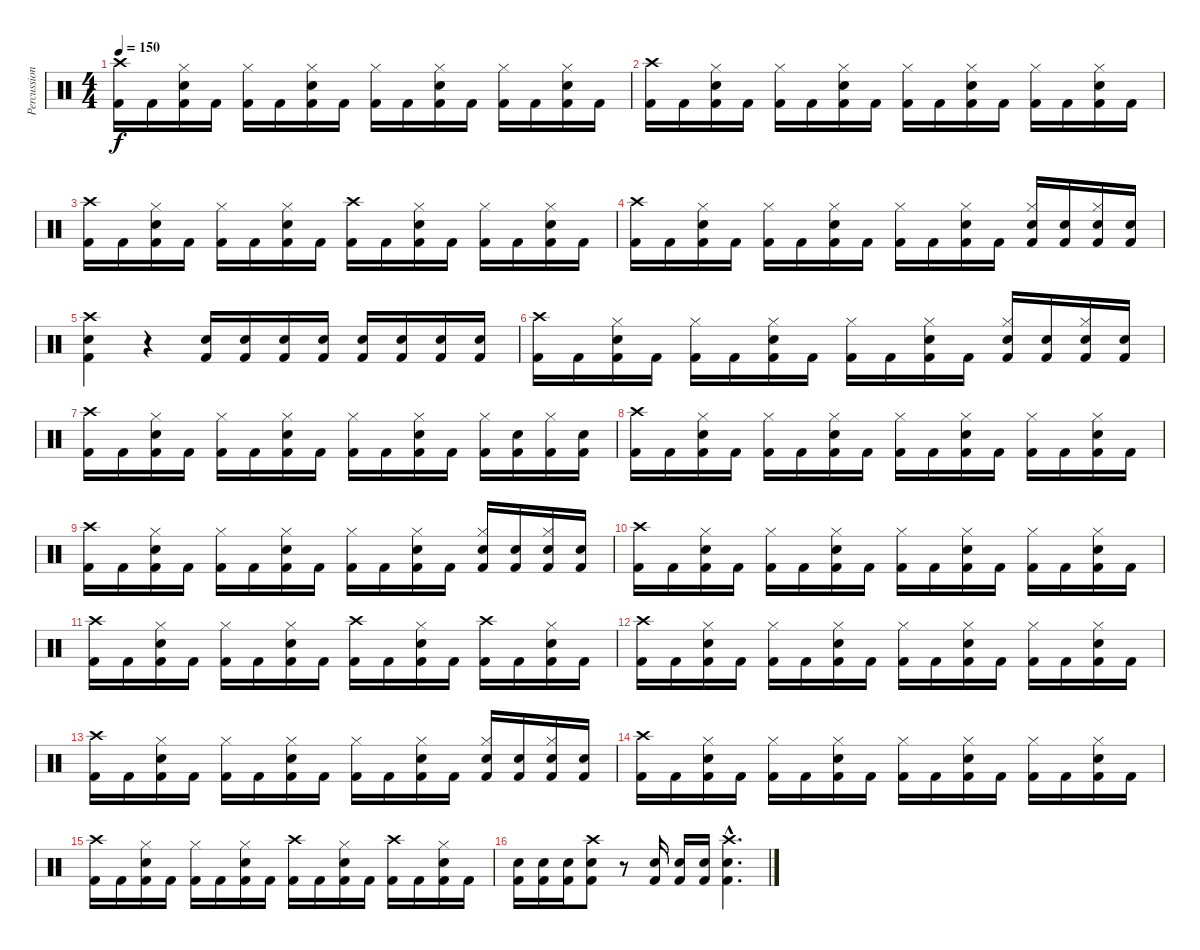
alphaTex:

\track ("Percussion" "Percussion") {instrument percussion}
\staff {score}
\articulation defaults
\ts (4 4)
\tempo 150
\clef neutral
\ks c
("Crash high (hit)" "Kick (hit) 2").16{dy f} "Kick (hit) 2".16 ("Hi-Hat (closed)" "Snare (hit) 2" "Kick (hit) 2").16 "Kick (hit) 2".16 ("Hi-Hat (closed)" "Kick (hit) 2").16 "Kick (hit) 2".16 ("Hi-Hat (closed)" "Snare (hit) 2" "Kick (hit) 2").16 "Kick (hit) 2".16 ("Hi-Hat (closed)" "Kick (hit) 2").16 "Kick (hit) 2".16 ("Hi-Hat (closed)" "Snare (hit) 2" "Kick (hit) 2").16 "Kick (hit) 2".16 ("Hi-Hat (closed)" "Kick (hit) 2").16 "Kick (hit) 2".16 ("Hi-Hat (closed)" "Snare (hit) 2" "Kick (hit) 2").16 "Kick (hit) 2".16 |
("Crash high (hit)" "Kick (hit) 2").16 "Kick (hit) 2".16 ("Hi-Hat (closed)" "Snare (hit) 2" "Kick (hit) 2").16 "Kick (hit) 2".16 ("Hi-Hat (closed)" "Kick (hit) 2").16 "Kick (hit) 2".16 ("Hi-Hat (closed)" "Snare (hit) 2" "Kick (hit) 2").16 "Kick (hit) 2".16 ("Hi-Hat (closed)" "Kick (hit) 2").16 "Kick (hit) 2".16 ("Hi-Hat (closed)" "Snare (hit) 2" "Kick (hit) 2").16 "Kick (hit) 2".16 ("Hi-Hat (closed)" "Kick (hit) 2").16 "Kick (hit) 2".16 ("Hi-Hat (closed)" "Snare (hit) 2" "Kick (hit) 2").16 "Kick (hit) 2".16 |
("Crash high (hit)" "Kick (hit) 2").16 "Kick (hit) 2".16 ("Hi-Hat (closed)" "Snare (hit) 2" "Kick (hit) 2").16 "Kick (hit) 2".16 ("Hi-Hat (closed)" "Kick (hit) 2").16 "Kick (hit) 2".16 ("Hi-Hat (closed)" "Snare (hit) 2" "Kick (hit) 2").16 "Kick (hit) 2".16 ("Crash high (hit)" "Kick (hit) 2").16 "Kick (hit) 2".16 ("Hi-Hat (closed)" "Snare (hit) 2" "Kick (hit) 2").16 "Kick (hit) 2".16 ("Hi-Hat (closed)" "Kick (hit) 2").16 "Kick (hit) 2".16 ("Hi-Hat (closed)" "Snare (hit) 2" "Kick (hit) 2").16 "Kick (hit) 2".16 |
("Crash high (hit)" "Kick (hit) 2").16 "Kick (hit) 2".16 ("Hi-Hat (closed)" "Snare (hit) 2" "Kick (hit) 2").16 "Kick (hit) 2".16 ("Hi-Hat (closed)" "Kick (hit) 2").16 "Kick (hit) 2".16 ("Hi-Hat (closed)" "Snare (hit) 2" "Kick (hit) 2").16 "Kick (hit) 2".16 ("Hi-Hat (closed)" "Kick (hit) 2").16 "Kick (hit) 2".16 ("Hi-Hat (closed)" "Snare (hit) 2" "Kick (hit) 2").16 "Kick (hit) 2".16 ("Hi-Hat (closed)" "Snare (hit) 2" "Kick (hit) 2").16 ("Snare (hit) 2" "Kick (hit) 2").16 ("Hi-Hat (closed)" "Snare (hit) 2" "Kick (hit) 2").16 ("Snare (hit) 2" "Kick (hit) 2").16 |
("Crash high (hit)" "Snare (hit) 2" "Kick (hit) 2").4 r.4 ("Snare (hit) 2" "Kick (hit) 2").16 ("Snare (hit) 2" "Kick (hit) 2").16 ("Snare (hit) 2" "Kick (hit) 2").16 ("Snare (hit) 2" "Kick (hit) 2").16 ("Snare (hit) 2" "Kick (hit) 2").16 ("Snare (hit) 2" "Kick (hit) 2").16 ("Snare (hit) 2" "Kick (hit) 2").16 ("Snare (hit) 2" "Kick (hit) 2").16 |
("Crash high (hit)" "Kick (hit) 2").16 "Kick (hit) 2".16 ("Hi-Hat (closed)" "Snare (hit) 2" "Kick (hit) 2").16 "Kick (hit) 2".16 ("Hi-Hat (closed)" "Kick (hit) 2").16 "Kick (hit) 2".16 ("Hi-Hat (closed)" "Snare (hit) 2" "Kick (hit) 2").16 "Kick (hit) 2".16 ("Hi-Hat (closed)" "Kick (hit) 2").16 "Kick (hit) 2".16 ("Hi-Hat (closed)" "Snare (hit) 2" "Kick (hit) 2").16 "Kick (hit) 2".16 ("Hi-Hat (closed)" "Snare (hit) 2" "Kick (hit) 2").16 ("Snare (hit) 2" "Kick (hit) 2").16 ("Hi-Hat (closed)" "Snare (hit) 2" "Kick (hit) 2").16 ("Snare (hit) 2" "Kick (hit) 2").16 |
("Crash high (hit)" "Kick (hit) 2").16 "Kick (hit) 2".16 ("Hi-Hat (closed)" "Snare (hit) 2" "Kick (hit) 2").16 "Kick (hit) 2".16 ("Hi-Hat (closed)" "Kick (hit) 2").16 "Kick (hit) 2".16 ("Hi-Hat (closed)" "Snare (hit) 2" "Kick (hit) 2").16 "Kick (hit) 2".16 ("Hi-Hat (closed)" "Kick (hit) 2").16 "Kick (hit) 2".16 ("Hi-Hat (closed)" "Snare (hit) 2" "Kick (hit) 2").16 "Kick (hit) 2".16 ("Hi-Hat (closed)" "Kick (hit) 2").16 ("Snare (hit) 2" "Kick (hit) 2").16 ("Hi-Hat (closed)" "Kick (hit) 2").16 ("Snare (hit) 2" "Kick (hit) 2").16 |
("Crash high (hit)" "Kick (hit) 2").16 "Kick (hit) 2".16 ("Hi-Hat (closed)" "Snare (hit) 2" "Kick (hit) 2").16 "Kick (hit) 2".16 ("Hi-Hat (closed)" "Kick (hit) 2").16 "Kick (hit) 2".16 ("Hi-Hat (closed)" "Snare (hit) 2" "Kick (hit) 2").16 "Kick (hit) 2".16 ("Hi-Hat (closed)" "Kick (hit) 2").16 "Kick (hit) 2".16 ("Hi-Hat (closed)" "Snare (hit) 2" "Kick (hit) 2").16 "Kick (hit) 2".16 ("Hi-Hat (closed)" "Kick (hit) 2").16 "Kick (hit) 2".16 ("Hi-Hat (closed)" "Snare (hit) 2" "Kick (hit) 2").16 "Kick (hit) 2".16 |
("Crash high (hit)" "Kick (hit) 2").16 "Kick (hit) 2".16 ("Hi-Hat (closed)" "Snare (hit) 2" "Kick (hit) 2").16 "Kick (hit) 2".16 ("Hi-Hat (closed)" "Kick (hit) 2").16 "Kick (hit) 2".16 ("Hi-Hat (closed)" "Snare (hit) 2" "Kick (hit) 2").16 "Kick (hit) 2".16 ("Hi-Hat (closed)" "Kick (hit) 2").16 "Kick (hit) 2".16 ("Hi-Hat (closed)" "Snare (hit) 2" "Kick (hit) 2").16 "Kick (hit) 2".16 ("Hi-Hat (closed)" "Snare (hit) 2" "Kick (hit) 2").16 ("Snare (hit) 2" "Kick (hit) 2").16 ("Hi-Hat (closed)" "Snare (hit) 2" "Kick (hit) 2").16 ("Snare (hit) 2" "Kick (hit) 2").16 |
("Crash high (hit)" "Kick (hit) 2").16 "Kick (hit) 2".16 ("Hi-Hat (closed)" "Snare (hit) 2" "Kick (hit) 2").16 "Kick (hit) 2".16 ("Hi-Hat (closed)" "Kick (hit) 2").16 "Kick (hit) 2".16 ("Hi-Hat (closed)" "Snare (hit) 2" "Kick (hit) 2").16 "Kick (hit) 2".16 ("Hi-Hat (closed)" "Kick (hit) 2").16 "Kick (hit) 2".16 ("Hi-Hat (closed)" "Snare (hit) 2" "Kick (hit) 2").16 "Kick (hit) 2".16 ("Hi-Hat (closed)" "Kick (hit) 2").16 "Kick (hit) 2".16 ("Hi-Hat (closed)" "Snare (hit) 2" "Kick (hit) 2").16 "Kick (hit) 2".16 |
("Crash high (hit)" "Kick (hit) 2").16 "Kick (hit) 2".16 ("Hi-Hat (closed)" "Snare (hit) 2" "Kick (hit) 2").16 "Kick (hit) 2".16 ("Hi-Hat (closed)" "Kick (hit) 2").16 "Kick (hit) 2".16 ("Hi-Hat (closed)" "Snare (hit) 2" "Kick (hit) 2").16 "Kick (hit) 2".16 ("Crash high (hit)" "Kick (hit) 2").16 "Kick (hit) 2".16 ("Hi-Hat (closed)" "Snare (hit) 2" "Kick (hit) 2").16 "Kick (hit) 2".16 ("Crash high (hit)" "Kick (hit) 2").16 "Kick (hit) 2".16 ("Hi-Hat (closed)" "Snare (hit) 2" "Kick (hit) 2").16 "Kick (hit) 2".16 |
("Crash high (hit)" "Kick (hit) 2").16 "Kick (hit) 2".16 ("Hi-Hat (closed)" "Snare (hit) 2" "Kick (hit) 2").16 "Kick (hit) 2".16 ("Hi-Hat (closed)" "Kick (hit) 2").16 "Kick (hit) 2".16 ("Hi-Hat (closed)" "Snare (hit) 2" "Kick (hit) 2").16 "Kick (hit) 2".16 ("Hi-Hat (closed)" "Kick (hit) 2").16 "Kick (hit) 2".16 ("Hi-Hat (closed)" "Snare (hit) 2" "Kick (hit) 2").16 "Kick (hit) 2".16 ("Hi-Hat (closed)" "Kick (hit) 2").16 "Kick (hit) 2".16 ("Hi-Hat (closed)" "Snare (hit) 2" "Kick (hit) 2").16 "Kick (hit) 2".16 |
("Crash high (hit)" "Kick (hit) 2").16 "Kick (hit) 2".16 ("Hi-Hat (closed)" "Snare (hit) 2" "Kick (hit) 2").16 "Kick (hit) 2".16 ("Hi-Hat (closed)" "Kick (hit) 2").16 "Kick (hit) 2".16 ("Hi-Hat (closed)" "Snare (hit) 2" "Kick (hit) 2").16 "Kick (hit) 2".16 ("Hi-Hat (closed)" "Kick (hit) 2").16 "Kick (hit) 2".16 ("Hi-Hat (closed)" "Snare (hit) 2" "Kick (hit) 2").16 "Kick (hit) 2".16 ("Hi-Hat (closed)" "Snare (hit) 2" "Kick (hit) 2").16 ("Snare (hit) 2" "Kick (hit) 2").16 ("Hi-Hat (closed)" "Snare (hit) 2" "Kick (hit) 2").16 ("Snare (hit) 2" "Kick (hit) 2").16 |
("Crash high (hit)" "Kick (hit) 2").16 "Kick (hit) 2".16 ("Hi-Hat (closed)" "Snare (hit) 2" "Kick (hit) 2").16 "Kick (hit) 2".16 ("Hi-Hat (closed)" "Kick (hit) 2").16 "Kick (hit) 2".16 ("Hi-Hat (closed)" "Snare (hit) 2" "Kick (hit) 2").16 "Kick (hit) 2".16 ("Hi-Hat (closed)" "Kick (hit) 2").16 "Kick (hit) 2".16 ("Hi-Hat (closed)" "Snare (hit) 2" "Kick (hit) 2").16 "Kick (hit) 2".16 ("Hi-Hat (closed)" "Kick (hit) 2").16 "Kick (hit) 2".16 ("Hi-Hat (closed)" "Snare (hit) 2" "Kick (hit) 2").16 "Kick (hit) 2".16 |
("Crash high (hit)" "Kick (hit) 2").16 "Kick (hit) 2".16 ("Hi-Hat (closed)" "Snare (hit) 2" "Kick (hit) 2").16 "Kick (hit) 2".16 ("Hi-Hat (closed)" "Kick (hit) 2").16 "Kick (hit) 2".16 ("Hi-Hat (closed)" "Snare (hit) 2" "Kick (hit) 2").16 "Kick (hit) 2".16 ("Crash high (hit)" "Kick (hit) 2").16 "Kick (hit) 2".16 ("Hi-Hat (closed)" "Snare (hit) 2" "Kick (hit) 2").16 "Kick (hit) 2".16 ("Crash high (hit)" "Kick (hit) 2").16 "Kick (hit) 2".16 ("Hi-Hat (closed)" "Snare (hit) 2" "Kick (hit) 2").16 "Kick (hit) 2".16 |
("Snare (hit) 2" "Kick (hit) 2").16 ("Snare (hit) 2" "Kick (hit) 2").16 ("Snare (hit) 2" "Kick (hit) 2").16 ("Crash high (hit)" "Snare (hit) 2" "Kick (hit) 2").8 r.8 ("Snare (hit) 2" "Kick (hit) 2").16 ("Snare (hit) 2" "Kick (hit) 2").16 ("Snare (hit) 2" "Kick (hit) 2").16 ("Crash high (hit)"{hac} "Snare (hit) 2"{hac} "Kick (hit) 2"{hac}).4{d}
